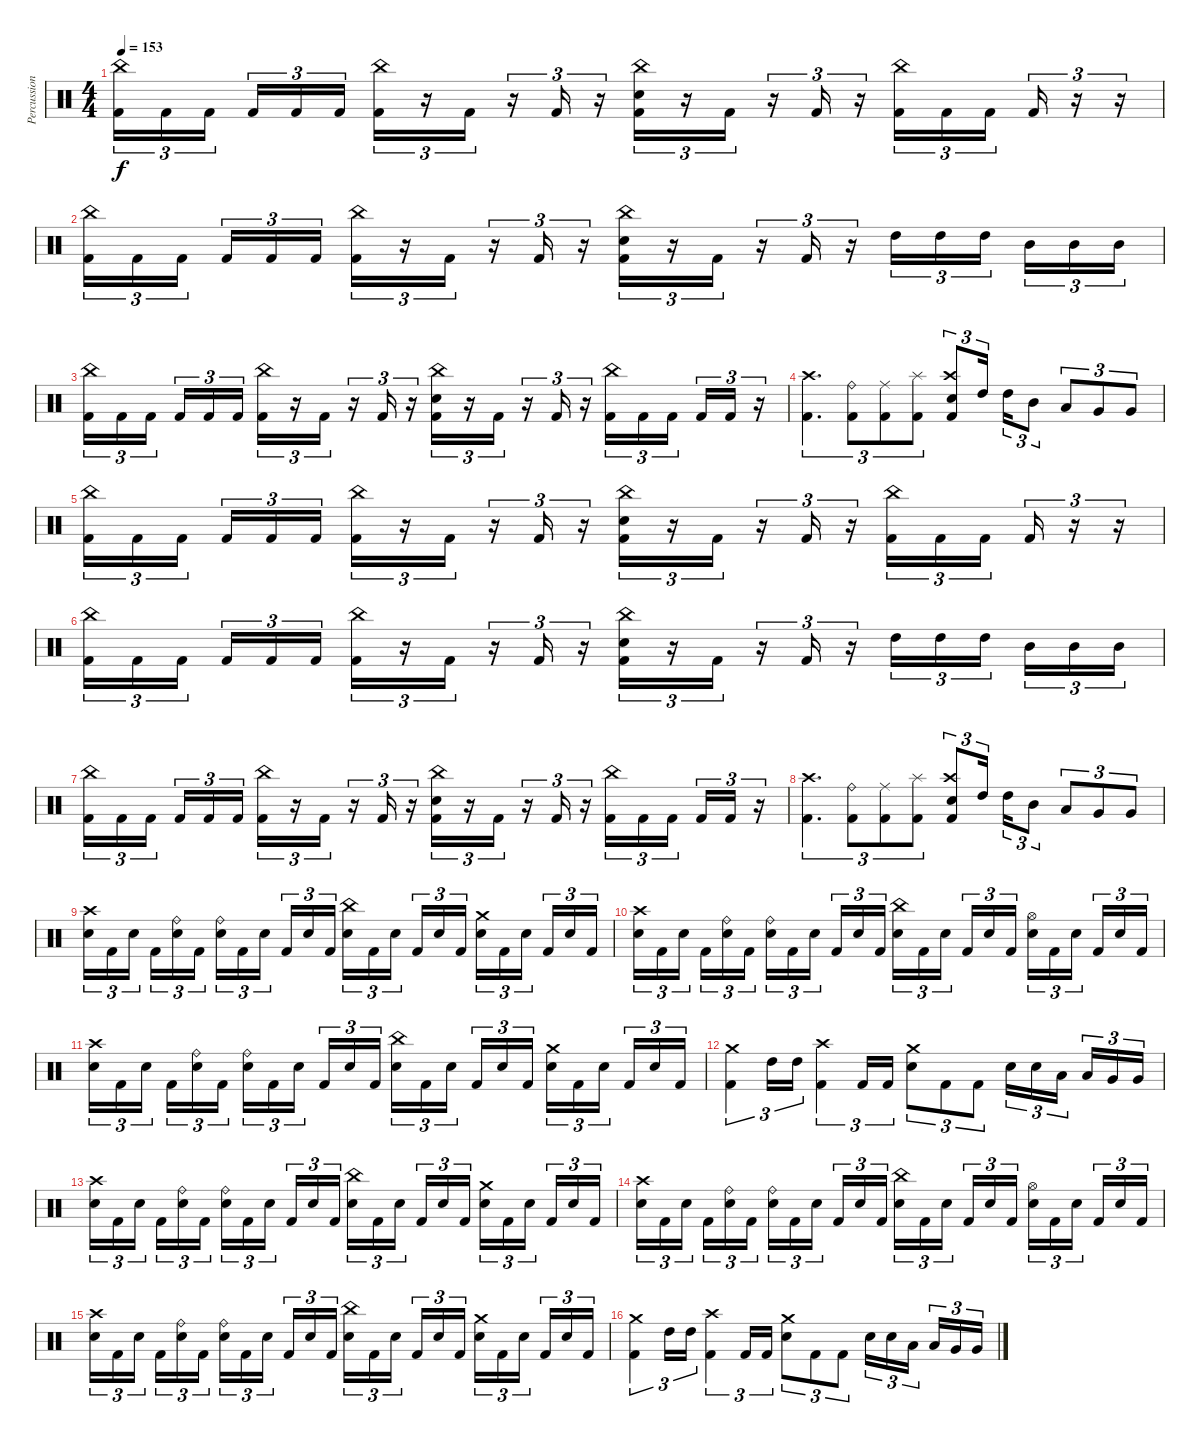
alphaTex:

\track ("Percussion" "Percussion") {instrument percussion}
\staff {score}
\articulation defaults
\ts (4 4)
\tempo 153
\clef neutral
\ks c
("China (hit)" "Kick (hit) 2").16{tu (3 2) dy f} "Kick (hit) 2".16{tu (3 2)} "Kick (hit) 2".16{tu (3 2) beam splitsecondary} "Kick (hit) 2".16{tu (3 2)} "Kick (hit) 2".16{tu (3 2)} "Kick (hit) 2".16{tu (3 2)} ("China (hit)" "Kick (hit) 2").16{tu (3 2)} r.16{tu (3 2)} "Kick (hit) 2".16{tu (3 2)} r.16{tu (3 2)} "Kick (hit) 2".16{tu (3 2)} r.16{tu (3 2)} ("China (hit)" "Electric Snare (hit)" "Kick (hit) 2").16{tu (3 2)} r.16{tu (3 2)} "Kick (hit) 2".16{tu (3 2)} r.16{tu (3 2)} "Kick (hit) 2".16{tu (3 2)} r.16{tu (3 2)} ("China (hit)" "Kick (hit) 2").16{tu (3 2)} "Kick (hit) 2".16{tu (3 2)} "Kick (hit) 2".16{tu (3 2) beam splitsecondary} "Kick (hit) 2".16{tu (3 2)} r.16{tu (3 2)} r.16{tu (3 2)} |
("China (hit)" "Kick (hit) 2").16{tu (3 2)} "Kick (hit) 2".16{tu (3 2)} "Kick (hit) 2".16{tu (3 2) beam splitsecondary} "Kick (hit) 2".16{tu (3 2)} "Kick (hit) 2".16{tu (3 2)} "Kick (hit) 2".16{tu (3 2)} ("China (hit)" "Kick (hit) 2").16{tu (3 2)} r.16{tu (3 2)} "Kick (hit) 2".16{tu (3 2)} r.16{tu (3 2)} "Kick (hit) 2".16{tu (3 2)} r.16{tu (3 2)} ("China (hit)" "Electric Snare (hit)" "Kick (hit) 2").16{tu (3 2)} r.16{tu (3 2)} "Kick (hit) 2".16{tu (3 2)} r.16{tu (3 2)} "Kick (hit) 2".16{tu (3 2)} r.16{tu (3 2)} "High Tom (hit)".16{tu (3 2)} "High Tom (hit)".16{tu (3 2)} "High Tom (hit)".16{tu (3 2) beam splitsecondary} "Mid Tom (hit)".16{tu (3 2)} "Mid Tom (hit)".16{tu (3 2)} "Mid Tom (hit)".16{tu (3 2)} |
("China (hit)" "Kick (hit) 2").16{tu (3 2)} "Kick (hit) 2".16{tu (3 2)} "Kick (hit) 2".16{tu (3 2) beam splitsecondary} "Kick (hit) 2".16{tu (3 2)} "Kick (hit) 2".16{tu (3 2)} "Kick (hit) 2".16{tu (3 2)} ("China (hit)" "Kick (hit) 2").16{tu (3 2)} r.16{tu (3 2)} "Kick (hit) 2".16{tu (3 2)} r.16{tu (3 2)} "Kick (hit) 2".16{tu (3 2)} r.16{tu (3 2)} ("China (hit)" "Electric Snare (hit)" "Kick (hit) 2").16{tu (3 2)} r.16{tu (3 2)} "Kick (hit) 2".16{tu (3 2)} r.16{tu (3 2)} "Kick (hit) 2".16{tu (3 2)} r.16{tu (3 2)} ("China (hit)" "Kick (hit) 2").16{tu (3 2)} "Kick (hit) 2".16{tu (3 2)} "Kick (hit) 2".16{tu (3 2) beam splitsecondary} "Kick (hit) 2".16{tu (3 2)} "Kick (hit) 2".16{tu (3 2)} r.16{tu (3 2)} |
("Crash high (hit)" "Kick (hit) 2").4{d tu (3 2)} ("Ride (bell)" "Kick (hit) 2").8{tu (3 2)} ("Ride (middle)" "Kick (hit) 2").8{tu (3 2)} ("Splash (hit)" "Kick (hit) 2").8{tu (3 2)} ("Crash high (hit)" "Snare (hit) 2" "Kick (hit) 2").8{tu (3 2)} "High Tom (hit)".16{tu (3 2) beam splitsecondary} "High Tom (hit)".16{tu (3 2)} "Mid Tom (hit)".8{tu (3 2)} "Low Tom (hit)".8{tu (3 2)} "Very Low Tom (hit)".8{tu (3 2)} "Very Low Tom (hit)".8{tu (3 2)} |
("China (hit)" "Kick (hit) 2").16{tu (3 2)} "Kick (hit) 2".16{tu (3 2)} "Kick (hit) 2".16{tu (3 2) beam splitsecondary} "Kick (hit) 2".16{tu (3 2)} "Kick (hit) 2".16{tu (3 2)} "Kick (hit) 2".16{tu (3 2)} ("China (hit)" "Kick (hit) 2").16{tu (3 2)} r.16{tu (3 2)} "Kick (hit) 2".16{tu (3 2)} r.16{tu (3 2)} "Kick (hit) 2".16{tu (3 2)} r.16{tu (3 2)} ("China (hit)" "Electric Snare (hit)" "Kick (hit) 2").16{tu (3 2)} r.16{tu (3 2)} "Kick (hit) 2".16{tu (3 2)} r.16{tu (3 2)} "Kick (hit) 2".16{tu (3 2)} r.16{tu (3 2)} ("China (hit)" "Kick (hit) 2").16{tu (3 2)} "Kick (hit) 2".16{tu (3 2)} "Kick (hit) 2".16{tu (3 2) beam splitsecondary} "Kick (hit) 2".16{tu (3 2)} r.16{tu (3 2)} r.16{tu (3 2)} |
("China (hit)" "Kick (hit) 2").16{tu (3 2)} "Kick (hit) 2".16{tu (3 2)} "Kick (hit) 2".16{tu (3 2) beam splitsecondary} "Kick (hit) 2".16{tu (3 2)} "Kick (hit) 2".16{tu (3 2)} "Kick (hit) 2".16{tu (3 2)} ("China (hit)" "Kick (hit) 2").16{tu (3 2)} r.16{tu (3 2)} "Kick (hit) 2".16{tu (3 2)} r.16{tu (3 2)} "Kick (hit) 2".16{tu (3 2)} r.16{tu (3 2)} ("China (hit)" "Electric Snare (hit)" "Kick (hit) 2").16{tu (3 2)} r.16{tu (3 2)} "Kick (hit) 2".16{tu (3 2)} r.16{tu (3 2)} "Kick (hit) 2".16{tu (3 2)} r.16{tu (3 2)} "High Tom (hit)".16{tu (3 2)} "High Tom (hit)".16{tu (3 2)} "High Tom (hit)".16{tu (3 2) beam splitsecondary} "Mid Tom (hit)".16{tu (3 2)} "Mid Tom (hit)".16{tu (3 2)} "Mid Tom (hit)".16{tu (3 2)} |
("China (hit)" "Kick (hit) 2").16{tu (3 2)} "Kick (hit) 2".16{tu (3 2)} "Kick (hit) 2".16{tu (3 2) beam splitsecondary} "Kick (hit) 2".16{tu (3 2)} "Kick (hit) 2".16{tu (3 2)} "Kick (hit) 2".16{tu (3 2)} ("China (hit)" "Kick (hit) 2").16{tu (3 2)} r.16{tu (3 2)} "Kick (hit) 2".16{tu (3 2)} r.16{tu (3 2)} "Kick (hit) 2".16{tu (3 2)} r.16{tu (3 2)} ("China (hit)" "Electric Snare (hit)" "Kick (hit) 2").16{tu (3 2)} r.16{tu (3 2)} "Kick (hit) 2".16{tu (3 2)} r.16{tu (3 2)} "Kick (hit) 2".16{tu (3 2)} r.16{tu (3 2)} ("China (hit)" "Kick (hit) 2").16{tu (3 2)} "Kick (hit) 2".16{tu (3 2)} "Kick (hit) 2".16{tu (3 2) beam splitsecondary} "Kick (hit) 2".16{tu (3 2)} "Kick (hit) 2".16{tu (3 2)} r.16{tu (3 2)} |
("Crash high (hit)" "Kick (hit) 2").4{d tu (3 2)} ("Ride (bell)" "Kick (hit) 2").8{tu (3 2)} ("Ride (middle)" "Kick (hit) 2").8{tu (3 2)} ("Splash (hit)" "Kick (hit) 2").8{tu (3 2)} ("Crash high (hit)" "Snare (hit) 2" "Kick (hit) 2").8{tu (3 2)} "High Tom (hit)".16{tu (3 2) beam splitsecondary} "High Tom (hit)".16{tu (3 2)} "Mid Tom (hit)".8{tu (3 2)} "Low Tom (hit)".8{tu (3 2)} "Very Low Tom (hit)".8{tu (3 2)} "Very Low Tom (hit)".8{tu (3 2)} |
("Crash high (hit)" "Snare (hit) 2").16{tu (3 2)} "Kick (hit) 2".16{tu (3 2)} "Snare (hit) 2".16{tu (3 2) beam splitsecondary} "Kick (hit) 2".16{tu (3 2)} ("Ride (bell)" "Snare (hit) 2").16{tu (3 2)} "Kick (hit) 2".16{tu (3 2)} ("Ride (bell)" "Snare (hit) 2").16{tu (3 2)} "Kick (hit) 2".16{tu (3 2)} "Snare (hit) 2".16{tu (3 2) beam splitsecondary} "Kick (hit) 2".16{tu (3 2)} "Snare (hit) 2".16{tu (3 2)} "Kick (hit) 2".16{tu (3 2)} ("China (hit)" "Snare (hit) 2").16{tu (3 2)} "Kick (hit) 2".16{tu (3 2)} "Snare (hit) 2".16{tu (3 2) beam splitsecondary} "Kick (hit) 2".16{tu (3 2)} "Snare (hit) 2".16{tu (3 2)} "Kick (hit) 2".16{tu (3 2)} ("Crash medium (hit)" "Snare (hit) 2").16{tu (3 2)} "Kick (hit) 2".16{tu (3 2)} "Snare (hit) 2".16{tu (3 2) beam splitsecondary} "Kick (hit) 2".16{tu (3 2)} "Snare (hit) 2".16{tu (3 2)} "Kick (hit) 2".16{tu (3 2)} |
("Crash high (hit)" "Snare (hit) 2").16{tu (3 2)} "Kick (hit) 2".16{tu (3 2)} "Snare (hit) 2".16{tu (3 2) beam splitsecondary} "Kick (hit) 2".16{tu (3 2)} ("Ride (bell)" "Snare (hit) 2").16{tu (3 2)} "Kick (hit) 2".16{tu (3 2)} ("Ride (bell)" "Snare (hit) 2").16{tu (3 2)} "Kick (hit) 2".16{tu (3 2)} "Snare (hit) 2".16{tu (3 2) beam splitsecondary} "Kick (hit) 2".16{tu (3 2)} "Snare (hit) 2".16{tu (3 2)} "Kick (hit) 2".16{tu (3 2)} ("China (hit)" "Snare (hit) 2").16{tu (3 2)} "Kick (hit) 2".16{tu (3 2)} "Snare (hit) 2".16{tu (3 2) beam splitsecondary} "Kick (hit) 2".16{tu (3 2)} "Snare (hit) 2".16{tu (3 2)} "Kick (hit) 2".16{tu (3 2)} ("Hi-Hat (open)" "Snare (hit) 2").16{tu (3 2)} "Kick (hit) 2".16{tu (3 2)} "Snare (hit) 2".16{tu (3 2) beam splitsecondary} "Kick (hit) 2".16{tu (3 2)} "Snare (hit) 2".16{tu (3 2)} "Kick (hit) 2".16{tu (3 2)} |
("Crash high (hit)" "Snare (hit) 2").16{tu (3 2)} "Kick (hit) 2".16{tu (3 2)} "Snare (hit) 2".16{tu (3 2) beam splitsecondary} "Kick (hit) 2".16{tu (3 2)} ("Ride (bell)" "Snare (hit) 2").16{tu (3 2)} "Kick (hit) 2".16{tu (3 2)} ("Ride (bell)" "Snare (hit) 2").16{tu (3 2)} "Kick (hit) 2".16{tu (3 2)} "Snare (hit) 2".16{tu (3 2) beam splitsecondary} "Kick (hit) 2".16{tu (3 2)} "Snare (hit) 2".16{tu (3 2)} "Kick (hit) 2".16{tu (3 2)} ("China (hit)" "Snare (hit) 2").16{tu (3 2)} "Kick (hit) 2".16{tu (3 2)} "Snare (hit) 2".16{tu (3 2) beam splitsecondary} "Kick (hit) 2".16{tu (3 2)} "Snare (hit) 2".16{tu (3 2)} "Kick (hit) 2".16{tu (3 2)} ("Crash medium (hit)" "Snare (hit) 2").16{tu (3 2)} "Kick (hit) 2".16{tu (3 2)} "Snare (hit) 2".16{tu (3 2) beam splitsecondary} "Kick (hit) 2".16{tu (3 2)} "Snare (hit) 2".16{tu (3 2)} "Kick (hit) 2".16{tu (3 2)} |
("Crash medium (hit)" "Kick (hit) 2").4{tu (3 2)} "High Tom (hit)".16{tu (3 2)} "High Tom (hit)".16{tu (3 2)} ("Crash high (hit)" "Kick (hit) 2").4{tu (3 2)} "Kick (hit) 2".16{tu (3 2)} "Kick (hit) 2".16{tu (3 2)} ("Crash medium (hit)" "Snare (hit) 2").8{tu (3 2)} "Kick (hit) 2".8{tu (3 2)} "Kick (hit) 2".8{tu (3 2)} "Snare (hit) 2".16{tu (3 2)} "Snare (hit) 2".16{tu (3 2)} "Low Tom (hit)".16{tu (3 2) beam splitsecondary} "Low Tom (hit)".16{tu (3 2)} "Very Low Tom (hit)".16{tu (3 2)} "Very Low Tom (hit)".16{tu (3 2)} |
("Crash high (hit)" "Snare (hit) 2").16{tu (3 2)} "Kick (hit) 2".16{tu (3 2)} "Snare (hit) 2".16{tu (3 2) beam splitsecondary} "Kick (hit) 2".16{tu (3 2)} ("Ride (bell)" "Snare (hit) 2").16{tu (3 2)} "Kick (hit) 2".16{tu (3 2)} ("Ride (bell)" "Snare (hit) 2").16{tu (3 2)} "Kick (hit) 2".16{tu (3 2)} "Snare (hit) 2".16{tu (3 2) beam splitsecondary} "Kick (hit) 2".16{tu (3 2)} "Snare (hit) 2".16{tu (3 2)} "Kick (hit) 2".16{tu (3 2)} ("China (hit)" "Snare (hit) 2").16{tu (3 2)} "Kick (hit) 2".16{tu (3 2)} "Snare (hit) 2".16{tu (3 2) beam splitsecondary} "Kick (hit) 2".16{tu (3 2)} "Snare (hit) 2".16{tu (3 2)} "Kick (hit) 2".16{tu (3 2)} ("Crash medium (hit)" "Snare (hit) 2").16{tu (3 2)} "Kick (hit) 2".16{tu (3 2)} "Snare (hit) 2".16{tu (3 2) beam splitsecondary} "Kick (hit) 2".16{tu (3 2)} "Snare (hit) 2".16{tu (3 2)} "Kick (hit) 2".16{tu (3 2)} |
("Crash high (hit)" "Snare (hit) 2").16{tu (3 2)} "Kick (hit) 2".16{tu (3 2)} "Snare (hit) 2".16{tu (3 2) beam splitsecondary} "Kick (hit) 2".16{tu (3 2)} ("Ride (bell)" "Snare (hit) 2").16{tu (3 2)} "Kick (hit) 2".16{tu (3 2)} ("Ride (bell)" "Snare (hit) 2").16{tu (3 2)} "Kick (hit) 2".16{tu (3 2)} "Snare (hit) 2".16{tu (3 2) beam splitsecondary} "Kick (hit) 2".16{tu (3 2)} "Snare (hit) 2".16{tu (3 2)} "Kick (hit) 2".16{tu (3 2)} ("China (hit)" "Snare (hit) 2").16{tu (3 2)} "Kick (hit) 2".16{tu (3 2)} "Snare (hit) 2".16{tu (3 2) beam splitsecondary} "Kick (hit) 2".16{tu (3 2)} "Snare (hit) 2".16{tu (3 2)} "Kick (hit) 2".16{tu (3 2)} ("Hi-Hat (open)" "Snare (hit) 2").16{tu (3 2)} "Kick (hit) 2".16{tu (3 2)} "Snare (hit) 2".16{tu (3 2) beam splitsecondary} "Kick (hit) 2".16{tu (3 2)} "Snare (hit) 2".16{tu (3 2)} "Kick (hit) 2".16{tu (3 2)} |
("Crash high (hit)" "Snare (hit) 2").16{tu (3 2)} "Kick (hit) 2".16{tu (3 2)} "Snare (hit) 2".16{tu (3 2) beam splitsecondary} "Kick (hit) 2".16{tu (3 2)} ("Ride (bell)" "Snare (hit) 2").16{tu (3 2)} "Kick (hit) 2".16{tu (3 2)} ("Ride (bell)" "Snare (hit) 2").16{tu (3 2)} "Kick (hit) 2".16{tu (3 2)} "Snare (hit) 2".16{tu (3 2) beam splitsecondary} "Kick (hit) 2".16{tu (3 2)} "Snare (hit) 2".16{tu (3 2)} "Kick (hit) 2".16{tu (3 2)} ("China (hit)" "Snare (hit) 2").16{tu (3 2)} "Kick (hit) 2".16{tu (3 2)} "Snare (hit) 2".16{tu (3 2) beam splitsecondary} "Kick (hit) 2".16{tu (3 2)} "Snare (hit) 2".16{tu (3 2)} "Kick (hit) 2".16{tu (3 2)} ("Crash medium (hit)" "Snare (hit) 2").16{tu (3 2)} "Kick (hit) 2".16{tu (3 2)} "Snare (hit) 2".16{tu (3 2) beam splitsecondary} "Kick (hit) 2".16{tu (3 2)} "Snare (hit) 2".16{tu (3 2)} "Kick (hit) 2".16{tu (3 2)} |
("Crash medium (hit)" "Kick (hit) 2").4{tu (3 2)} "High Tom (hit)".16{tu (3 2)} "High Tom (hit)".16{tu (3 2)} ("Crash high (hit)" "Kick (hit) 2").4{tu (3 2)} "Kick (hit) 2".16{tu (3 2)} "Kick (hit) 2".16{tu (3 2)} ("Crash medium (hit)" "Snare (hit) 2").8{tu (3 2)} "Kick (hit) 2".8{tu (3 2)} "Kick (hit) 2".8{tu (3 2)} "Snare (hit) 2".16{tu (3 2)} "Snare (hit) 2".16{tu (3 2)} "Low Tom (hit)".16{tu (3 2) beam splitsecondary} "Low Tom (hit)".16{tu (3 2)} "Very Low Tom (hit)".16{tu (3 2)} "Very Low Tom (hit)".16{tu (3 2)}
